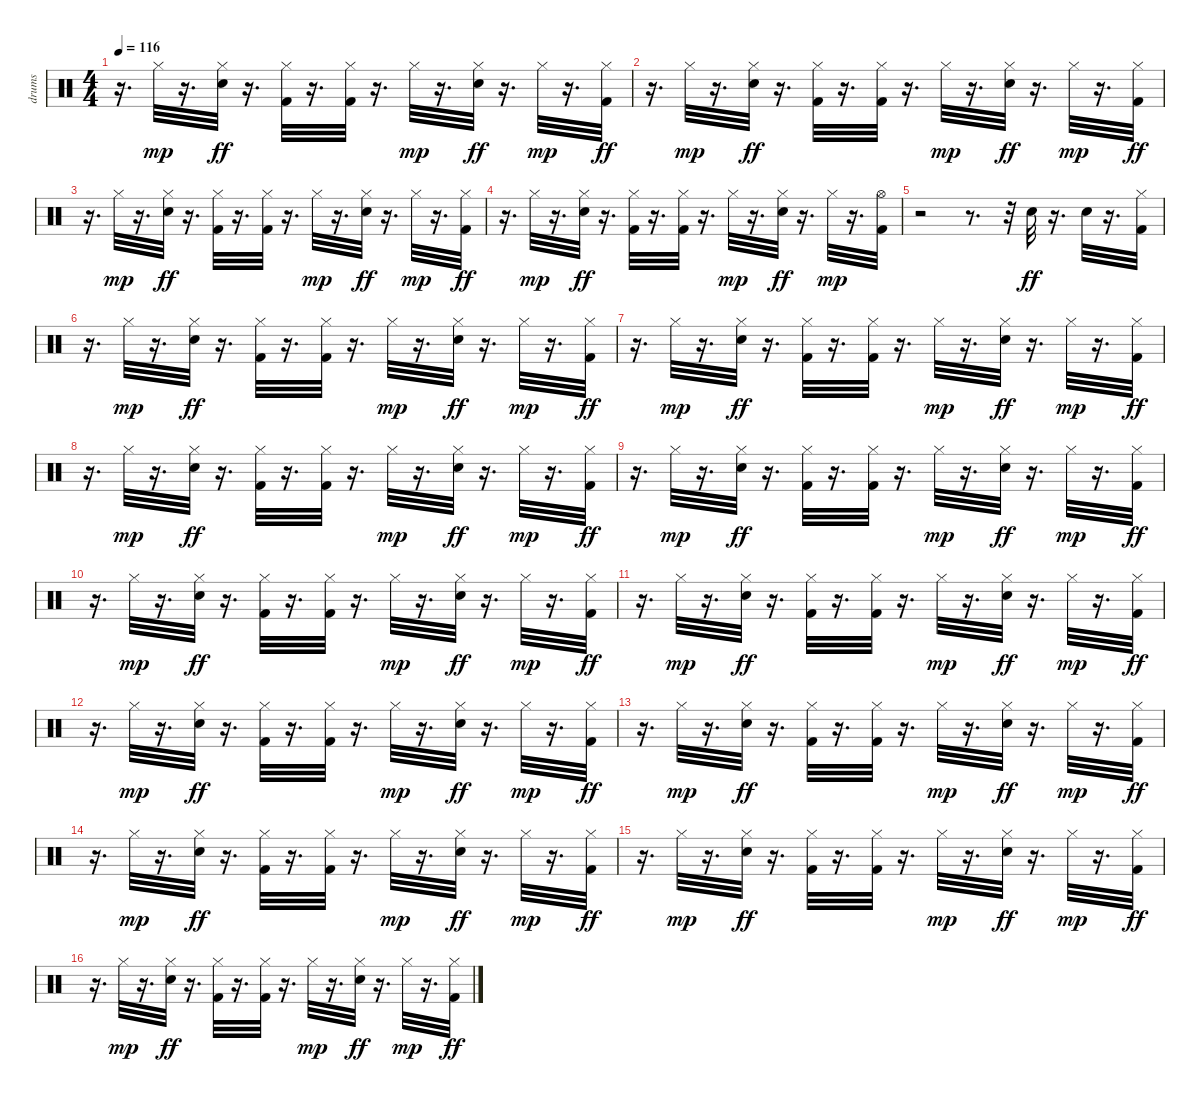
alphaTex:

\track ("drums" "drums") {instrument percussion}
\staff {score}
\articulation defaults
\ts (4 4)
\tempo 116
\clef neutral
\ks c
r.16{d dy ff} "Hi-Hat (closed)".32{dy mp} r.16{d} ("Hi-Hat (closed)" "Snare (hit) 2").32{dy ff} r.16{d} ("Hi-Hat (closed)" "Kick (hit) 2").32 r.16{d} ("Hi-Hat (closed)" "Kick (hit) 2").32 r.16{d} "Hi-Hat (closed)".32{dy mp} r.16{d} ("Hi-Hat (closed)" "Snare (hit) 2").32{dy ff} r.16{d} "Hi-Hat (closed)".32{dy mp} r.16{d} ("Hi-Hat (closed)" "Kick (hit) 2").32{dy ff} |
r.16{d} "Hi-Hat (closed)".32{dy mp} r.16{d} ("Hi-Hat (closed)" "Snare (hit) 2").32{dy ff} r.16{d} ("Hi-Hat (closed)" "Kick (hit) 2").32 r.16{d} ("Hi-Hat (closed)" "Kick (hit) 2").32 r.16{d} "Hi-Hat (closed)".32{dy mp} r.16{d} ("Hi-Hat (closed)" "Snare (hit) 2").32{dy ff} r.16{d} "Hi-Hat (closed)".32{dy mp} r.16{d} ("Hi-Hat (closed)" "Kick (hit) 2").32{dy ff} |
r.16{d} "Hi-Hat (closed)".32{dy mp} r.16{d} ("Hi-Hat (closed)" "Snare (hit) 2").32{dy ff} r.16{d} ("Hi-Hat (closed)" "Kick (hit) 2").32 r.16{d} ("Hi-Hat (closed)" "Kick (hit) 2").32 r.16{d} "Hi-Hat (closed)".32{dy mp} r.16{d} ("Hi-Hat (closed)" "Snare (hit) 2").32{dy ff} r.16{d} "Hi-Hat (closed)".32{dy mp} r.16{d} ("Hi-Hat (closed)" "Kick (hit) 2").32{dy ff} |
r.16{d} "Hi-Hat (closed)".32{dy mp} r.16{d} ("Hi-Hat (closed)" "Snare (hit) 2").32{dy ff} r.16{d} ("Hi-Hat (closed)" "Kick (hit) 2").32 r.16{d} ("Hi-Hat (closed)" "Kick (hit) 2").32 r.16{d} "Hi-Hat (closed)".32{dy mp} r.16{d} ("Hi-Hat (closed)" "Snare (hit) 2").32{dy ff} r.16{d} "Hi-Hat (closed)".32{dy mp} r.16{d} ("Kick (hit) 2" "Hi-Hat (open)").32 |
r.2 r.8{d} r.32 "Snare (hit) 2".32{dy ff} r.16{d} "Snare (hit) 2".32 r.16{d} ("Hi-Hat (closed)" "Kick (hit) 2").32 |
r.16{d} "Hi-Hat (closed)".32{dy mp} r.16{d} ("Hi-Hat (closed)" "Snare (hit) 2").32{dy ff} r.16{d} ("Hi-Hat (closed)" "Kick (hit) 2").32 r.16{d} ("Hi-Hat (closed)" "Kick (hit) 2").32 r.16{d} "Hi-Hat (closed)".32{dy mp} r.16{d} ("Hi-Hat (closed)" "Snare (hit) 2").32{dy ff} r.16{d} "Hi-Hat (closed)".32{dy mp} r.16{d} ("Hi-Hat (closed)" "Kick (hit) 2").32{dy ff} |
r.16{d} "Hi-Hat (closed)".32{dy mp} r.16{d} ("Hi-Hat (closed)" "Snare (hit) 2").32{dy ff} r.16{d} ("Hi-Hat (closed)" "Kick (hit) 2").32 r.16{d} ("Hi-Hat (closed)" "Kick (hit) 2").32 r.16{d} "Hi-Hat (closed)".32{dy mp} r.16{d} ("Hi-Hat (closed)" "Snare (hit) 2").32{dy ff} r.16{d} "Hi-Hat (closed)".32{dy mp} r.16{d} ("Hi-Hat (closed)" "Kick (hit) 2").32{dy ff} |
r.16{d} "Hi-Hat (closed)".32{dy mp} r.16{d} ("Hi-Hat (closed)" "Snare (hit) 2").32{dy ff} r.16{d} ("Hi-Hat (closed)" "Kick (hit) 2").32 r.16{d} ("Hi-Hat (closed)" "Kick (hit) 2").32 r.16{d} "Hi-Hat (closed)".32{dy mp} r.16{d} ("Hi-Hat (closed)" "Snare (hit) 2").32{dy ff} r.16{d} "Hi-Hat (closed)".32{dy mp} r.16{d} ("Hi-Hat (closed)" "Kick (hit) 2").32{dy ff} |
r.16{d} "Hi-Hat (closed)".32{dy mp} r.16{d} ("Hi-Hat (closed)" "Snare (hit) 2").32{dy ff} r.16{d} ("Hi-Hat (closed)" "Kick (hit) 2").32 r.16{d} ("Hi-Hat (closed)" "Kick (hit) 2").32 r.16{d} "Hi-Hat (closed)".32{dy mp} r.16{d} ("Hi-Hat (closed)" "Snare (hit) 2").32{dy ff} r.16{d} "Hi-Hat (closed)".32{dy mp} r.16{d} ("Hi-Hat (closed)" "Kick (hit) 2").32{dy ff} |
r.16{d} "Hi-Hat (closed)".32{dy mp} r.16{d} ("Hi-Hat (closed)" "Snare (hit) 2").32{dy ff} r.16{d} ("Hi-Hat (closed)" "Kick (hit) 2").32 r.16{d} ("Hi-Hat (closed)" "Kick (hit) 2").32 r.16{d} "Hi-Hat (closed)".32{dy mp} r.16{d} ("Hi-Hat (closed)" "Snare (hit) 2").32{dy ff} r.16{d} "Hi-Hat (closed)".32{dy mp} r.16{d} ("Hi-Hat (closed)" "Kick (hit) 2").32{dy ff} |
r.16{d} "Hi-Hat (closed)".32{dy mp} r.16{d} ("Hi-Hat (closed)" "Snare (hit) 2").32{dy ff} r.16{d} ("Hi-Hat (closed)" "Kick (hit) 2").32 r.16{d} ("Hi-Hat (closed)" "Kick (hit) 2").32 r.16{d} "Hi-Hat (closed)".32{dy mp} r.16{d} ("Hi-Hat (closed)" "Snare (hit) 2").32{dy ff} r.16{d} "Hi-Hat (closed)".32{dy mp} r.16{d} ("Hi-Hat (closed)" "Kick (hit) 2").32{dy ff} |
r.16{d} "Hi-Hat (closed)".32{dy mp} r.16{d} ("Hi-Hat (closed)" "Snare (hit) 2").32{dy ff} r.16{d} ("Hi-Hat (closed)" "Kick (hit) 2").32 r.16{d} ("Hi-Hat (closed)" "Kick (hit) 2").32 r.16{d} "Hi-Hat (closed)".32{dy mp} r.16{d} ("Hi-Hat (closed)" "Snare (hit) 2").32{dy ff} r.16{d} "Hi-Hat (closed)".32{dy mp} r.16{d} ("Hi-Hat (closed)" "Kick (hit) 2").32{dy ff} |
r.16{d} "Hi-Hat (closed)".32{dy mp} r.16{d} ("Hi-Hat (closed)" "Snare (hit) 2").32{dy ff} r.16{d} ("Hi-Hat (closed)" "Kick (hit) 2").32 r.16{d} ("Hi-Hat (closed)" "Kick (hit) 2").32 r.16{d} "Hi-Hat (closed)".32{dy mp} r.16{d} ("Hi-Hat (closed)" "Snare (hit) 2").32{dy ff} r.16{d} "Hi-Hat (closed)".32{dy mp} r.16{d} ("Hi-Hat (closed)" "Kick (hit) 2").32{dy ff} |
r.16{d} "Hi-Hat (closed)".32{dy mp} r.16{d} ("Hi-Hat (closed)" "Snare (hit) 2").32{dy ff} r.16{d} ("Hi-Hat (closed)" "Kick (hit) 2").32 r.16{d} ("Hi-Hat (closed)" "Kick (hit) 2").32 r.16{d} "Hi-Hat (closed)".32{dy mp} r.16{d} ("Hi-Hat (closed)" "Snare (hit) 2").32{dy ff} r.16{d} "Hi-Hat (closed)".32{dy mp} r.16{d} ("Hi-Hat (closed)" "Kick (hit) 2").32{dy ff} |
r.16{d} "Hi-Hat (closed)".32{dy mp} r.16{d} ("Hi-Hat (closed)" "Snare (hit) 2").32{dy ff} r.16{d} ("Hi-Hat (closed)" "Kick (hit) 2").32 r.16{d} ("Hi-Hat (closed)" "Kick (hit) 2").32 r.16{d} "Hi-Hat (closed)".32{dy mp} r.16{d} ("Hi-Hat (closed)" "Snare (hit) 2").32{dy ff} r.16{d} "Hi-Hat (closed)".32{dy mp} r.16{d} ("Hi-Hat (closed)" "Kick (hit) 2").32{dy ff} |
r.16{d} "Hi-Hat (closed)".32{dy mp} r.16{d} ("Hi-Hat (closed)" "Snare (hit) 2").32{dy ff} r.16{d} ("Hi-Hat (closed)" "Kick (hit) 2").32 r.16{d} ("Hi-Hat (closed)" "Kick (hit) 2").32 r.16{d} "Hi-Hat (closed)".32{dy mp} r.16{d} ("Hi-Hat (closed)" "Snare (hit) 2").32{dy ff} r.16{d} "Hi-Hat (closed)".32{dy mp} r.16{d} ("Hi-Hat (closed)" "Kick (hit) 2").32{dy ff}
